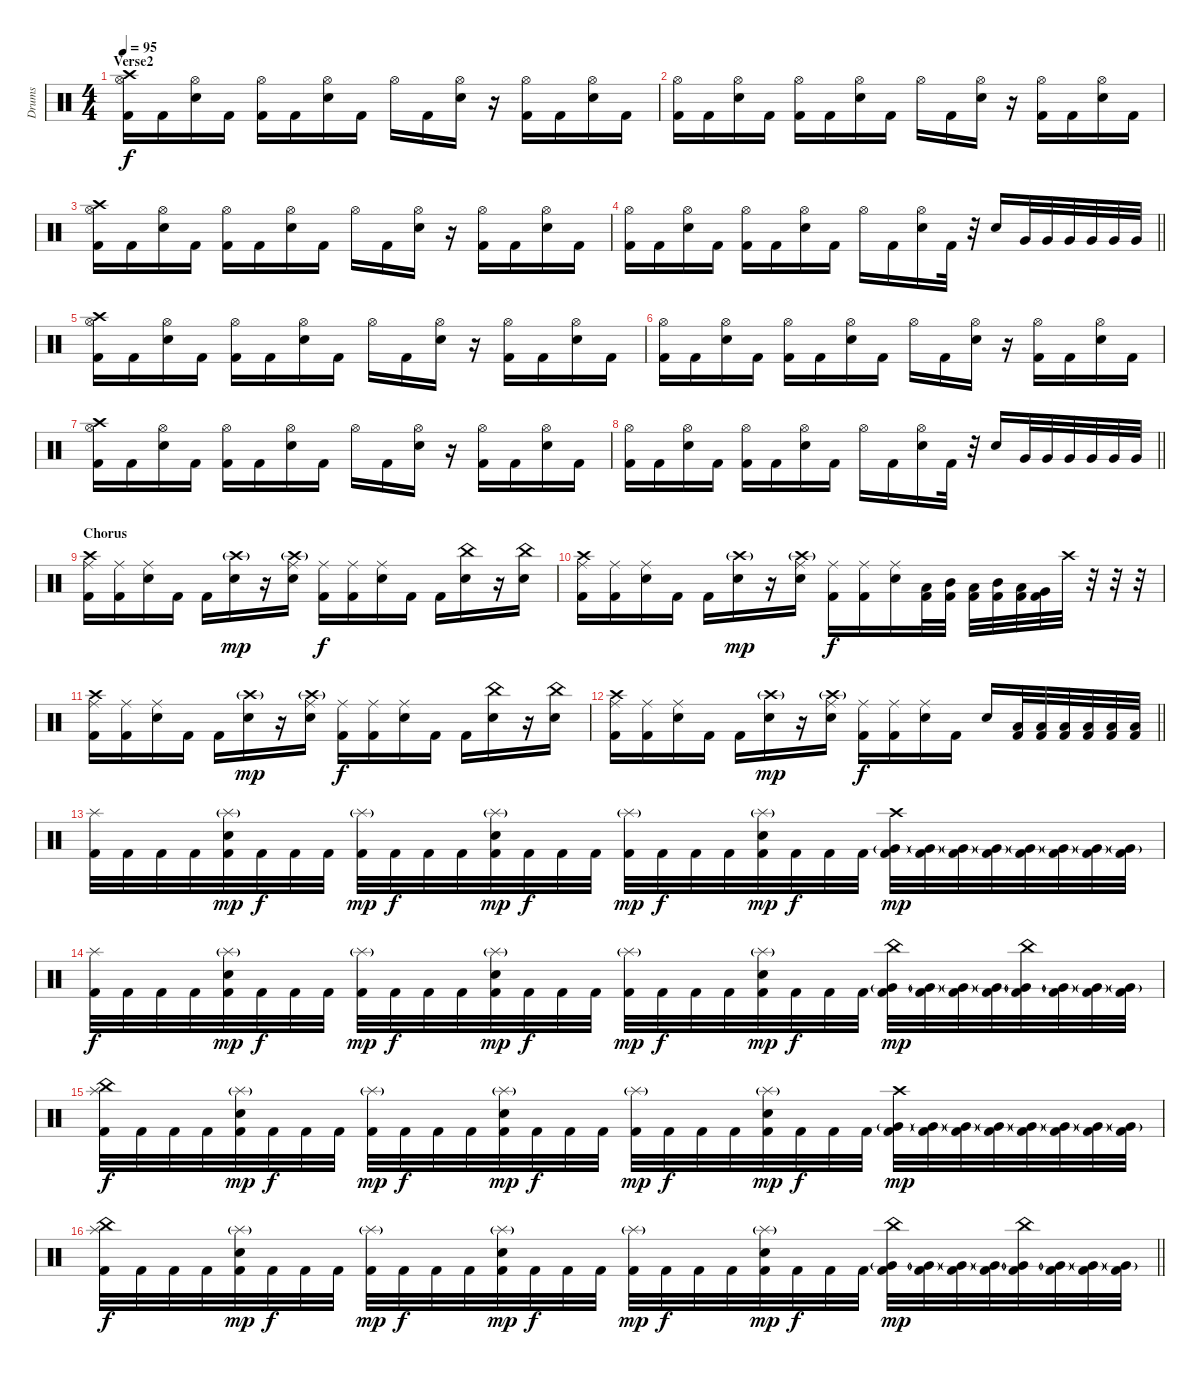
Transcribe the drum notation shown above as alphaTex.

\track ("Drums" "Drums") {instrument percussion}
\staff {score}
\articulation defaults
\ts (4 4)
\section ("" "Verse2")
\tempo 95
\clef neutral
\ks c
("Crash high (hit)" "Kick (hit) 2" "Hi-Hat (open)").16{dy f} "Kick (hit) 2".16 ("Snare (hit) 2" "Hi-Hat (open)").16 "Kick (hit) 2".16 ("Kick (hit) 2" "Hi-Hat (open)").16 "Kick (hit) 2".16 ("Snare (hit) 2" "Hi-Hat (open)").16 "Kick (hit) 2".16 "Hi-Hat (open)".16 "Kick (hit) 2".16 ("Snare (hit) 2" "Hi-Hat (open)").16 r.16 ("Kick (hit) 2" "Hi-Hat (open)").16 "Kick (hit) 2".16 ("Snare (hit) 2" "Hi-Hat (open)").16 "Kick (hit) 2".16 |
("Kick (hit) 2" "Hi-Hat (open)").16 "Kick (hit) 2".16 ("Snare (hit) 2" "Hi-Hat (open)").16 "Kick (hit) 2".16 ("Kick (hit) 2" "Hi-Hat (open)").16 "Kick (hit) 2".16 ("Snare (hit) 2" "Hi-Hat (open)").16 "Kick (hit) 2".16 "Hi-Hat (open)".16 "Kick (hit) 2".16 ("Snare (hit) 2" "Hi-Hat (open)").16 r.16 ("Kick (hit) 2" "Hi-Hat (open)").16 "Kick (hit) 2".16 ("Snare (hit) 2" "Hi-Hat (open)").16 "Kick (hit) 2".16 |
("Crash high (hit)" "Kick (hit) 2" "Hi-Hat (open)").16 "Kick (hit) 2".16 ("Snare (hit) 2" "Hi-Hat (open)").16 "Kick (hit) 2".16 ("Kick (hit) 2" "Hi-Hat (open)").16 "Kick (hit) 2".16 ("Snare (hit) 2" "Hi-Hat (open)").16 "Kick (hit) 2".16 "Hi-Hat (open)".16 "Kick (hit) 2".16 ("Snare (hit) 2" "Hi-Hat (open)").16 r.16 ("Kick (hit) 2" "Hi-Hat (open)").16 "Kick (hit) 2".16 ("Snare (hit) 2" "Hi-Hat (open)").16 "Kick (hit) 2".16 |
\barLineRight lightlight
("Kick (hit) 2" "Hi-Hat (open)").16 "Kick (hit) 2".16 ("Snare (hit) 2" "Hi-Hat (open)").16 "Kick (hit) 2".16 ("Kick (hit) 2" "Hi-Hat (open)").16 "Kick (hit) 2".16 ("Snare (hit) 2" "Hi-Hat (open)").16 "Kick (hit) 2".16 "Hi-Hat (open)".16 "Kick (hit) 2".16 ("Snare (hit) 2" "Hi-Hat (open)").16 "Kick (hit) 2".32 r.32 "Snare (hit) 2".16 "Very Low Tom (hit)".32 "Very Low Tom (hit)".32 "Very Low Tom (hit)".32 "Very Low Tom (hit)".32 "Very Low Tom (hit)".32 "Very Low Tom (hit)".32 |
("Crash high (hit)" "Kick (hit) 2" "Hi-Hat (open)").16 "Kick (hit) 2".16 ("Snare (hit) 2" "Hi-Hat (open)").16 "Kick (hit) 2".16 ("Kick (hit) 2" "Hi-Hat (open)").16 "Kick (hit) 2".16 ("Snare (hit) 2" "Hi-Hat (open)").16 "Kick (hit) 2".16 "Hi-Hat (open)".16 "Kick (hit) 2".16 ("Snare (hit) 2" "Hi-Hat (open)").16 r.16 ("Kick (hit) 2" "Hi-Hat (open)").16 "Kick (hit) 2".16 ("Snare (hit) 2" "Hi-Hat (open)").16 "Kick (hit) 2".16 |
("Kick (hit) 2" "Hi-Hat (open)").16 "Kick (hit) 2".16 ("Snare (hit) 2" "Hi-Hat (open)").16 "Kick (hit) 2".16 ("Kick (hit) 2" "Hi-Hat (open)").16 "Kick (hit) 2".16 ("Snare (hit) 2" "Hi-Hat (open)").16 "Kick (hit) 2".16 "Hi-Hat (open)".16 "Kick (hit) 2".16 ("Snare (hit) 2" "Hi-Hat (open)").16 r.16 ("Kick (hit) 2" "Hi-Hat (open)").16 "Kick (hit) 2".16 ("Snare (hit) 2" "Hi-Hat (open)").16 "Kick (hit) 2".16 |
("Crash high (hit)" "Kick (hit) 2" "Hi-Hat (open)").16 "Kick (hit) 2".16 ("Snare (hit) 2" "Hi-Hat (open)").16 "Kick (hit) 2".16 ("Kick (hit) 2" "Hi-Hat (open)").16 "Kick (hit) 2".16 ("Snare (hit) 2" "Hi-Hat (open)").16 "Kick (hit) 2".16 "Hi-Hat (open)".16 "Kick (hit) 2".16 ("Snare (hit) 2" "Hi-Hat (open)").16 r.16 ("Kick (hit) 2" "Hi-Hat (open)").16 "Kick (hit) 2".16 ("Snare (hit) 2" "Hi-Hat (open)").16 "Kick (hit) 2".16 |
\barLineRight lightlight
("Kick (hit) 2" "Hi-Hat (open)").16 "Kick (hit) 2".16 ("Snare (hit) 2" "Hi-Hat (open)").16 "Kick (hit) 2".16 ("Kick (hit) 2" "Hi-Hat (open)").16 "Kick (hit) 2".16 ("Snare (hit) 2" "Hi-Hat (open)").16 "Kick (hit) 2".16 "Hi-Hat (open)".16 "Kick (hit) 2".16 ("Snare (hit) 2" "Hi-Hat (open)").16 "Kick (hit) 2".32 r.32 "Snare (hit) 2".16 "Very Low Tom (hit)".32 "Very Low Tom (hit)".32 "Very Low Tom (hit)".32 "Very Low Tom (hit)".32 "Very Low Tom (hit)".32 "Very Low Tom (hit)".32 |
\section ("" "Chorus")
("Crash high (hit)" "Kick (hit) 2" "Ride (middle)").16 ("Kick (hit) 2" "Ride (middle)").16 ("Snare (hit) 2" "Ride (middle)").16 "Kick (hit) 2".16 "Kick (hit) 2".16 ("Crash high (hit)"{g} "Snare (hit) 2").16{dy mp} r.16 ("Crash high (hit)"{g} "Snare (hit) 2" "Ride (middle)").16 ("Kick (hit) 2" "Ride (middle)").16{dy f} ("Kick (hit) 2" "Ride (middle)").16 ("Snare (hit) 2" "Ride (middle)").16 "Kick (hit) 2".16 "Kick (hit) 2".16 ("China (hit)" "Snare (hit) 2").16 r.16 ("China (hit)" "Snare (hit) 2").16 |
("Crash high (hit)" "Kick (hit) 2" "Ride (middle)").16 ("Kick (hit) 2" "Ride (middle)").16 ("Snare (hit) 2" "Ride (middle)").16 "Kick (hit) 2".16 "Kick (hit) 2".16 ("Crash high (hit)"{g} "Snare (hit) 2").16{dy mp} r.16 ("Crash high (hit)"{g} "Snare (hit) 2" "Ride (middle)").16 ("Kick (hit) 2" "Ride (middle)").16{dy f} ("Kick (hit) 2" "Ride (middle)").16 ("Snare (hit) 2" "Ride (middle)").16 ("Low Tom (hit)" "Kick (hit) 2").32 ("Mid Tom (hit)" "Kick (hit) 2").32 ("Low Tom (hit)" "Kick (hit) 2").32 ("Mid Tom (hit)" "Kick (hit) 2").32 ("Low Tom (hit)" "Kick (hit) 2").32 ("Very Low Tom (hit)" "Kick (hit) 2").32 "Crash high (hit)".32 r.32 r.32 r.32 |
("Crash high (hit)" "Kick (hit) 2" "Ride (middle)").16 ("Kick (hit) 2" "Ride (middle)").16 ("Snare (hit) 2" "Ride (middle)").16 "Kick (hit) 2".16 "Kick (hit) 2".16 ("Crash high (hit)"{g} "Snare (hit) 2").16{dy mp} r.16 ("Crash high (hit)"{g} "Snare (hit) 2" "Ride (middle)").16 ("Kick (hit) 2" "Ride (middle)").16{dy f} ("Kick (hit) 2" "Ride (middle)").16 ("Snare (hit) 2" "Ride (middle)").16 "Kick (hit) 2".16 "Kick (hit) 2".16 ("China (hit)" "Snare (hit) 2").16 r.16 ("China (hit)" "Snare (hit) 2").16 |
\barLineRight lightlight
("Crash high (hit)" "Kick (hit) 2" "Ride (middle)").16 ("Kick (hit) 2" "Ride (middle)").16 ("Snare (hit) 2" "Ride (middle)").16 "Kick (hit) 2".16 "Kick (hit) 2".16 ("Crash high (hit)"{g} "Snare (hit) 2").16{dy mp} r.16 ("Crash high (hit)"{g} "Snare (hit) 2" "Ride (middle)").16 ("Kick (hit) 2" "Ride (middle)").16{dy f} ("Kick (hit) 2" "Ride (middle)").16 ("Snare (hit) 2" "Ride (middle)").16 "Kick (hit) 2".16 "Snare (hit) 2".16 ("Low Tom (hit)" "Kick (hit) 2").32 ("Low Tom (hit)" "Kick (hit) 2").32 ("Low Tom (hit)" "Kick (hit) 2").32 ("Low Tom (hit)" "Kick (hit) 2").32 ("Low Tom (hit)" "Kick (hit) 2").32 ("Low Tom (hit)" "Kick (hit) 2").32 |
("Splash (hit)" "Kick (hit) 2").32 "Kick (hit) 2".32 "Kick (hit) 2".32 "Kick (hit) 2".32 ("Splash (hit)"{g} "Snare (hit) 2" "Kick (hit) 2").32{dy mp} "Kick (hit) 2".32{dy f} "Kick (hit) 2".32 "Kick (hit) 2".32 ("Splash (hit)"{g} "Kick (hit) 2").32{dy mp} "Kick (hit) 2".32{dy f} "Kick (hit) 2".32 "Kick (hit) 2".32 ("Splash (hit)"{g} "Snare (hit) 2" "Kick (hit) 2").32{dy mp} "Kick (hit) 2".32{dy f} "Kick (hit) 2".32 "Kick (hit) 2".32 ("Splash (hit)"{g} "Kick (hit) 2").32{dy mp} "Kick (hit) 2".32{dy f} "Kick (hit) 2".32 "Kick (hit) 2".32 ("Splash (hit)"{g} "Snare (hit) 2" "Kick (hit) 2").32{dy mp} "Kick (hit) 2".32{dy f} "Kick (hit) 2".32 "Kick (hit) 2".32 ("Crash high (hit)" "Very Low Tom (hit)"{g} "Kick (hit) 2").32{dy mp} ("Very Low Tom (hit)"{g} "Kick (hit) 2").32 ("Very Low Tom (hit)"{g} "Kick (hit) 2").32 ("Very Low Tom (hit)"{g} "Kick (hit) 2").32 ("Very Low Tom (hit)"{g} "Kick (hit) 2").32 ("Very Low Tom (hit)"{g} "Kick (hit) 2").32 ("Very Low Tom (hit)"{g} "Kick (hit) 2").32 ("Very Low Tom (hit)"{g} "Kick (hit) 2").32 |
("Splash (hit)" "Kick (hit) 2").32{dy f} "Kick (hit) 2".32 "Kick (hit) 2".32 "Kick (hit) 2".32 ("Splash (hit)"{g} "Snare (hit) 2" "Kick (hit) 2").32{dy mp} "Kick (hit) 2".32{dy f} "Kick (hit) 2".32 "Kick (hit) 2".32 ("Splash (hit)"{g} "Kick (hit) 2").32{dy mp} "Kick (hit) 2".32{dy f} "Kick (hit) 2".32 "Kick (hit) 2".32 ("Splash (hit)"{g} "Snare (hit) 2" "Kick (hit) 2").32{dy mp} "Kick (hit) 2".32{dy f} "Kick (hit) 2".32 "Kick (hit) 2".32 ("Splash (hit)"{g} "Kick (hit) 2").32{dy mp} "Kick (hit) 2".32{dy f} "Kick (hit) 2".32 "Kick (hit) 2".32 ("Splash (hit)"{g} "Snare (hit) 2" "Kick (hit) 2").32{dy mp} "Kick (hit) 2".32{dy f} "Kick (hit) 2".32 "Kick (hit) 2".32 ("China (hit)" "Very Low Tom (hit)"{g} "Kick (hit) 2").32{dy mp} ("Very Low Tom (hit)"{g} "Kick (hit) 2").32 ("Very Low Tom (hit)"{g} "Kick (hit) 2").32 ("Very Low Tom (hit)"{g} "Kick (hit) 2").32 ("China (hit)" "Very Low Tom (hit)"{g} "Kick (hit) 2").32 ("Very Low Tom (hit)"{g} "Kick (hit) 2").32 ("Very Low Tom (hit)"{g} "Kick (hit) 2").32 ("Very Low Tom (hit)"{g} "Kick (hit) 2").32 |
("China (hit)" "Splash (hit)" "Kick (hit) 2").32{dy f} "Kick (hit) 2".32 "Kick (hit) 2".32 "Kick (hit) 2".32 ("Splash (hit)"{g} "Snare (hit) 2" "Kick (hit) 2").32{dy mp} "Kick (hit) 2".32{dy f} "Kick (hit) 2".32 "Kick (hit) 2".32 ("Splash (hit)"{g} "Kick (hit) 2").32{dy mp} "Kick (hit) 2".32{dy f} "Kick (hit) 2".32 "Kick (hit) 2".32 ("Splash (hit)"{g} "Snare (hit) 2" "Kick (hit) 2").32{dy mp} "Kick (hit) 2".32{dy f} "Kick (hit) 2".32 "Kick (hit) 2".32 ("Splash (hit)"{g} "Kick (hit) 2").32{dy mp} "Kick (hit) 2".32{dy f} "Kick (hit) 2".32 "Kick (hit) 2".32 ("Splash (hit)"{g} "Snare (hit) 2" "Kick (hit) 2").32{dy mp} "Kick (hit) 2".32{dy f} "Kick (hit) 2".32 "Kick (hit) 2".32 ("Crash high (hit)" "Very Low Tom (hit)"{g} "Kick (hit) 2").32{dy mp} ("Very Low Tom (hit)"{g} "Kick (hit) 2").32 ("Very Low Tom (hit)"{g} "Kick (hit) 2").32 ("Very Low Tom (hit)"{g} "Kick (hit) 2").32 ("Very Low Tom (hit)"{g} "Kick (hit) 2").32 ("Very Low Tom (hit)"{g} "Kick (hit) 2").32 ("Very Low Tom (hit)"{g} "Kick (hit) 2").32 ("Very Low Tom (hit)"{g} "Kick (hit) 2").32 |
\barLineRight lightlight
("China (hit)" "Splash (hit)" "Kick (hit) 2").32{dy f} "Kick (hit) 2".32 "Kick (hit) 2".32 "Kick (hit) 2".32 ("Splash (hit)"{g} "Snare (hit) 2" "Kick (hit) 2").32{dy mp} "Kick (hit) 2".32{dy f} "Kick (hit) 2".32 "Kick (hit) 2".32 ("Splash (hit)"{g} "Kick (hit) 2").32{dy mp} "Kick (hit) 2".32{dy f} "Kick (hit) 2".32 "Kick (hit) 2".32 ("Splash (hit)"{g} "Snare (hit) 2" "Kick (hit) 2").32{dy mp} "Kick (hit) 2".32{dy f} "Kick (hit) 2".32 "Kick (hit) 2".32 ("Splash (hit)"{g} "Kick (hit) 2").32{dy mp} "Kick (hit) 2".32{dy f} "Kick (hit) 2".32 "Kick (hit) 2".32 ("Splash (hit)"{g} "Snare (hit) 2" "Kick (hit) 2").32{dy mp} "Kick (hit) 2".32{dy f} "Kick (hit) 2".32 "Kick (hit) 2".32 ("China (hit)" "Very Low Tom (hit)"{g} "Kick (hit) 2").32{dy mp} ("Very Low Tom (hit)"{g} "Kick (hit) 2").32 ("Very Low Tom (hit)"{g} "Kick (hit) 2").32 ("Very Low Tom (hit)"{g} "Kick (hit) 2").32 ("China (hit)" "Very Low Tom (hit)"{g} "Kick (hit) 2").32 ("Very Low Tom (hit)"{g} "Kick (hit) 2").32 ("Very Low Tom (hit)"{g} "Kick (hit) 2").32 ("Very Low Tom (hit)"{g} "Kick (hit) 2").32
